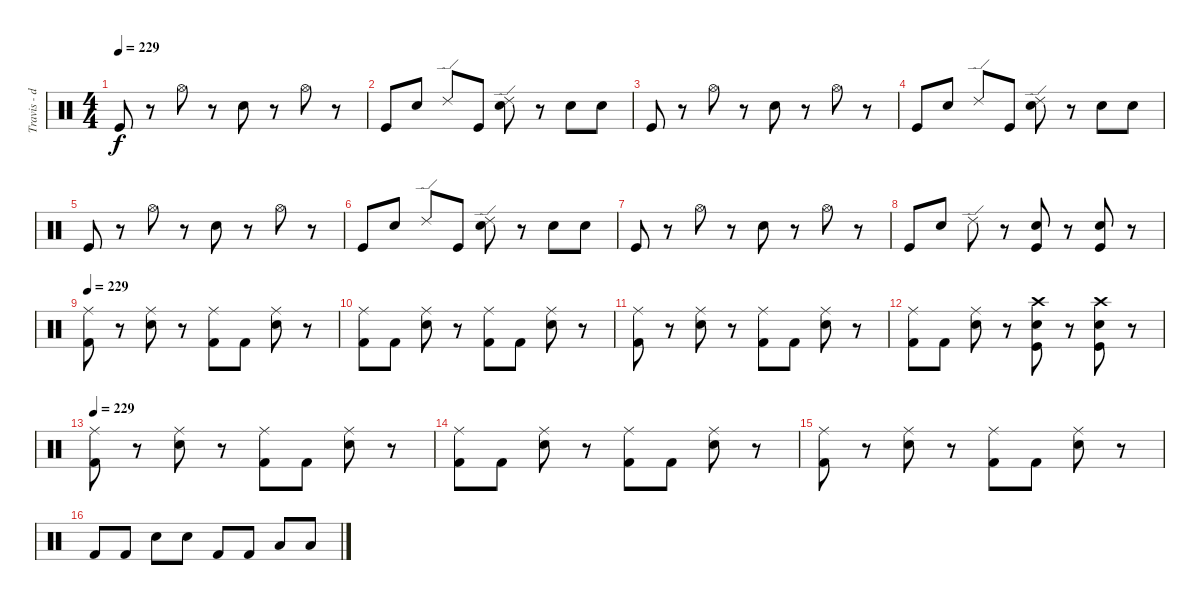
\track ("Travis - drums" "Travis - d") {instrument percussion}
\staff {score}
\articulation defaults
\ts (4 4)
\tempo 229
\clef neutral
\ks c "Kick (hit)".8{dy f}
r.8 "Hi-Hat (open)".8 r.8 "Electric Snare (hit)".8 r.8 "Hi-Hat (open)".8 r.8 |
"Kick (hit)".8 "Electric Snare (hit)".8 "Ride (edge) 2".8 "Kick (hit)".8 ("Ride (edge) 2" "Electric Snare (hit)").8 r.8 "Snare (hit) 2".8 "Electric Snare (hit)".8 |
"Kick (hit)".8 r.8 "Hi-Hat (open)".8 r.8 "Electric Snare (hit)".8 r.8 "Hi-Hat (open)".8 r.8 |
"Kick (hit)".8 "Electric Snare (hit)".8 "Ride (edge) 2".8 "Kick (hit)".8 ("Ride (edge) 2" "Electric Snare (hit)").8 r.8 "Snare (hit) 2".8 "Electric Snare (hit)".8 |
"Kick (hit)".8 r.8 "Hi-Hat (open)".8 r.8 "Electric Snare (hit)".8 r.8 "Hi-Hat (open)".8 r.8 |
"Kick (hit)".8 "Electric Snare (hit)".8 "Ride (edge) 2".8 "Kick (hit)".8 ("Ride (edge) 2" "Electric Snare (hit)").8 r.8 "Snare (hit) 2".8 "Electric Snare (hit)".8 |
"Kick (hit)".8 r.8 "Hi-Hat (open)".8 r.8 "Electric Snare (hit)".8 r.8 "Hi-Hat (open)".8 r.8 |
"Kick (hit)".8 "Electric Snare (hit)".8 "Ride (edge) 2".8 r.8 ("Kick (hit)" "Electric Snare (hit)").8 r.8 ("Kick (hit)" "Electric Snare (hit)").8 r.8 |
\tempo 229
("Ride (middle)" "Kick (hit) 2").8 r.8 ("Ride (middle)" "Electric Snare (hit)").8 r.8 ("Ride (middle)" "Kick (hit) 2").8 "Kick (hit) 2".8 ("Ride (middle)" "Electric Snare (hit)").8 r.8 |
("Ride (middle)" "Kick (hit) 2").8 "Kick (hit) 2".8 ("Ride (middle)" "Electric Snare (hit)").8 r.8 ("Ride (middle)" "Kick (hit) 2").8 "Kick (hit) 2".8 ("Ride (middle)" "Electric Snare (hit)").8 r.8 |
("Ride (middle)" "Kick (hit) 2").8 r.8 ("Ride (middle)" "Electric Snare (hit)").8 r.8 ("Ride (middle)" "Kick (hit) 2").8 "Kick (hit) 2".8 ("Ride (middle)" "Electric Snare (hit)").8 r.8 |
("Ride (middle)" "Kick (hit) 2").8 "Kick (hit) 2".8 ("Ride (middle)" "Electric Snare (hit)").8 r.8 ("Crash high (hit)" "Kick (hit)" "Electric Snare (hit)").8 r.8 ("Crash high (hit)" "Kick (hit)" "Electric Snare (hit)").8 r.8 |
\tempo 229
("Ride (middle)" "Kick (hit) 2").8 r.8 ("Ride (middle)" "Electric Snare (hit)").8 r.8 ("Ride (middle)" "Kick (hit) 2").8 "Kick (hit) 2".8 ("Ride (middle)" "Electric Snare (hit)").8 r.8 |
("Ride (middle)" "Kick (hit) 2").8 "Kick (hit) 2".8 ("Ride (middle)" "Electric Snare (hit)").8 r.8 ("Ride (middle)" "Kick (hit) 2").8 "Kick (hit) 2".8 ("Ride (middle)" "Electric Snare (hit)").8 r.8 |
("Ride (middle)" "Kick (hit) 2").8 r.8 ("Ride (middle)" "Electric Snare (hit)").8 r.8 ("Ride (middle)" "Kick (hit) 2").8 "Kick (hit) 2".8 ("Ride (middle)" "Electric Snare (hit)").8 r.8 |
"Kick (hit) 2".8 "Kick (hit) 2".8 "Electric Snare (hit)".8 "Electric Snare (hit)".8 "Kick (hit) 2".8 "Kick (hit) 2".8 "Low Floor Tom (hit)".8 "Low Floor Tom (hit)".8
